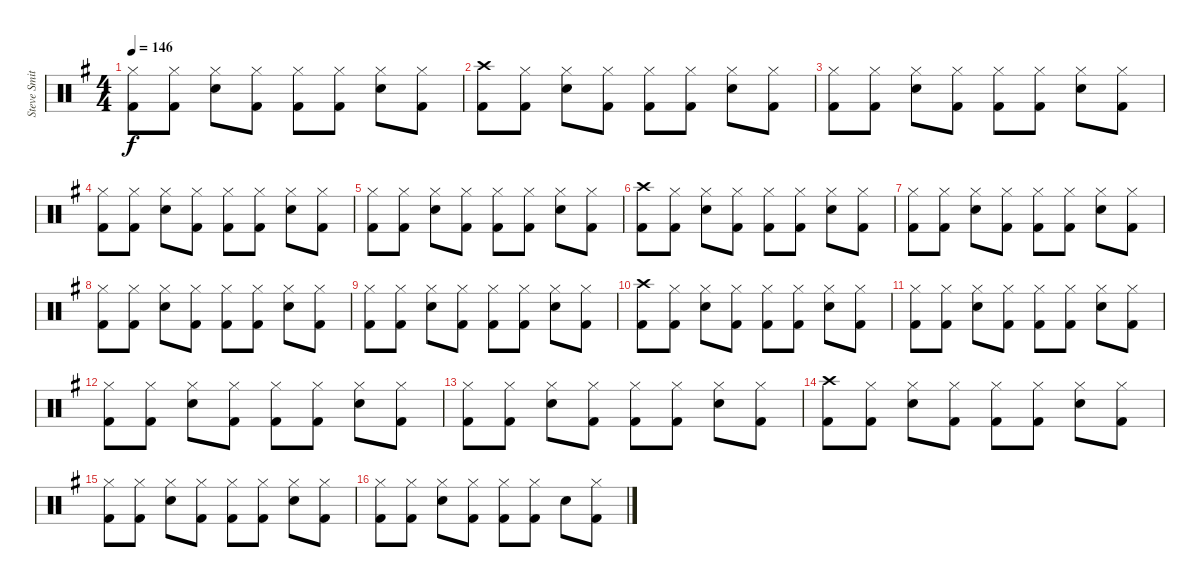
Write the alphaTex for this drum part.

\track ("Steve Smith" "Steve Smit") {instrument percussion}
\staff {score}
\articulation defaults
\ts (4 4)
\tempo 146
\clef neutral
\ks g
("Hi-Hat (closed)" "Kick (hit) 2").8{dy f} ("Hi-Hat (closed)" "Kick (hit) 2").8 ("Hi-Hat (closed)" "Snare (hit) 2").8 ("Hi-Hat (closed)" "Kick (hit) 2").8 ("Hi-Hat (closed)" "Kick (hit) 2").8 ("Hi-Hat (closed)" "Kick (hit) 2").8 ("Hi-Hat (closed)" "Snare (hit) 2").8 ("Hi-Hat (closed)" "Kick (hit) 2").8 |
("Crash high (hit)" "Kick (hit) 2").8 ("Hi-Hat (closed)" "Kick (hit) 2").8 ("Hi-Hat (closed)" "Snare (hit) 2").8 ("Hi-Hat (closed)" "Kick (hit) 2").8 ("Hi-Hat (closed)" "Kick (hit) 2").8 ("Hi-Hat (closed)" "Kick (hit) 2").8 ("Hi-Hat (closed)" "Snare (hit) 2").8 ("Hi-Hat (closed)" "Kick (hit) 2").8 |
("Hi-Hat (closed)" "Kick (hit) 2").8 ("Hi-Hat (closed)" "Kick (hit) 2").8 ("Hi-Hat (closed)" "Snare (hit) 2").8 ("Hi-Hat (closed)" "Kick (hit) 2").8 ("Hi-Hat (closed)" "Kick (hit) 2").8 ("Hi-Hat (closed)" "Kick (hit) 2").8 ("Hi-Hat (closed)" "Snare (hit) 2").8 ("Hi-Hat (closed)" "Kick (hit) 2").8 |
("Hi-Hat (closed)" "Kick (hit) 2").8 ("Hi-Hat (closed)" "Kick (hit) 2").8 ("Hi-Hat (closed)" "Snare (hit) 2").8 ("Hi-Hat (closed)" "Kick (hit) 2").8 ("Hi-Hat (closed)" "Kick (hit) 2").8 ("Hi-Hat (closed)" "Kick (hit) 2").8 ("Hi-Hat (closed)" "Snare (hit) 2").8 ("Hi-Hat (closed)" "Kick (hit) 2").8 |
("Hi-Hat (closed)" "Kick (hit) 2").8 ("Hi-Hat (closed)" "Kick (hit) 2").8 ("Hi-Hat (closed)" "Snare (hit) 2").8 ("Hi-Hat (closed)" "Kick (hit) 2").8 ("Hi-Hat (closed)" "Kick (hit) 2").8 ("Hi-Hat (closed)" "Kick (hit) 2").8 ("Hi-Hat (closed)" "Snare (hit) 2").8 ("Hi-Hat (closed)" "Kick (hit) 2").8 |
("Crash high (hit)" "Kick (hit) 2").8 ("Hi-Hat (closed)" "Kick (hit) 2").8 ("Hi-Hat (closed)" "Snare (hit) 2").8 ("Hi-Hat (closed)" "Kick (hit) 2").8 ("Hi-Hat (closed)" "Kick (hit) 2").8 ("Hi-Hat (closed)" "Kick (hit) 2").8 ("Hi-Hat (closed)" "Snare (hit) 2").8 ("Hi-Hat (closed)" "Kick (hit) 2").8 |
("Hi-Hat (closed)" "Kick (hit) 2").8 ("Hi-Hat (closed)" "Kick (hit) 2").8 ("Hi-Hat (closed)" "Snare (hit) 2").8 ("Hi-Hat (closed)" "Kick (hit) 2").8 ("Hi-Hat (closed)" "Kick (hit) 2").8 ("Hi-Hat (closed)" "Kick (hit) 2").8 ("Hi-Hat (closed)" "Snare (hit) 2").8 ("Hi-Hat (closed)" "Kick (hit) 2").8 |
("Hi-Hat (closed)" "Kick (hit) 2").8 ("Hi-Hat (closed)" "Kick (hit) 2").8 ("Hi-Hat (closed)" "Snare (hit) 2").8 ("Hi-Hat (closed)" "Kick (hit) 2").8 ("Hi-Hat (closed)" "Kick (hit) 2").8 ("Hi-Hat (closed)" "Kick (hit) 2").8 ("Hi-Hat (closed)" "Snare (hit) 2").8 ("Hi-Hat (closed)" "Kick (hit) 2").8 |
("Hi-Hat (closed)" "Kick (hit) 2").8 ("Hi-Hat (closed)" "Kick (hit) 2").8 ("Hi-Hat (closed)" "Snare (hit) 2").8 ("Hi-Hat (closed)" "Kick (hit) 2").8 ("Hi-Hat (closed)" "Kick (hit) 2").8 ("Hi-Hat (closed)" "Kick (hit) 2").8 ("Hi-Hat (closed)" "Snare (hit) 2").8 ("Hi-Hat (closed)" "Kick (hit) 2").8 |
("Crash high (hit)" "Kick (hit) 2").8 ("Hi-Hat (closed)" "Kick (hit) 2").8 ("Hi-Hat (closed)" "Snare (hit) 2").8 ("Hi-Hat (closed)" "Kick (hit) 2").8 ("Hi-Hat (closed)" "Kick (hit) 2").8 ("Hi-Hat (closed)" "Kick (hit) 2").8 ("Hi-Hat (closed)" "Snare (hit) 2").8 ("Hi-Hat (closed)" "Kick (hit) 2").8 |
("Hi-Hat (closed)" "Kick (hit) 2").8 ("Hi-Hat (closed)" "Kick (hit) 2").8 ("Hi-Hat (closed)" "Snare (hit) 2").8 ("Hi-Hat (closed)" "Kick (hit) 2").8 ("Hi-Hat (closed)" "Kick (hit) 2").8 ("Hi-Hat (closed)" "Kick (hit) 2").8 ("Hi-Hat (closed)" "Snare (hit) 2").8 ("Hi-Hat (closed)" "Kick (hit) 2").8 |
("Hi-Hat (closed)" "Kick (hit) 2").8 ("Hi-Hat (closed)" "Kick (hit) 2").8 ("Hi-Hat (closed)" "Snare (hit) 2").8 ("Hi-Hat (closed)" "Kick (hit) 2").8 ("Hi-Hat (closed)" "Kick (hit) 2").8 ("Hi-Hat (closed)" "Kick (hit) 2").8 ("Hi-Hat (closed)" "Snare (hit) 2").8 ("Hi-Hat (closed)" "Kick (hit) 2").8 |
("Hi-Hat (closed)" "Kick (hit) 2").8 ("Hi-Hat (closed)" "Kick (hit) 2").8 ("Hi-Hat (closed)" "Snare (hit) 2").8 ("Hi-Hat (closed)" "Kick (hit) 2").8 ("Hi-Hat (closed)" "Kick (hit) 2").8 ("Hi-Hat (closed)" "Kick (hit) 2").8 ("Hi-Hat (closed)" "Snare (hit) 2").8 ("Hi-Hat (closed)" "Kick (hit) 2").8 |
("Crash high (hit)" "Kick (hit) 2").8 ("Hi-Hat (closed)" "Kick (hit) 2").8 ("Hi-Hat (closed)" "Snare (hit) 2").8 ("Hi-Hat (closed)" "Kick (hit) 2").8 ("Hi-Hat (closed)" "Kick (hit) 2").8 ("Hi-Hat (closed)" "Kick (hit) 2").8 ("Hi-Hat (closed)" "Snare (hit) 2").8 ("Hi-Hat (closed)" "Kick (hit) 2").8 |
("Hi-Hat (closed)" "Kick (hit) 2").8 ("Hi-Hat (closed)" "Kick (hit) 2").8 ("Hi-Hat (closed)" "Snare (hit) 2").8 ("Hi-Hat (closed)" "Kick (hit) 2").8 ("Hi-Hat (closed)" "Kick (hit) 2").8 ("Hi-Hat (closed)" "Kick (hit) 2").8 ("Hi-Hat (closed)" "Snare (hit) 2").8 ("Hi-Hat (closed)" "Kick (hit) 2").8 |
("Hi-Hat (closed)" "Kick (hit) 2").8 ("Hi-Hat (closed)" "Kick (hit) 2").8 ("Hi-Hat (closed)" "Snare (hit) 2").8 ("Hi-Hat (closed)" "Kick (hit) 2").8 ("Hi-Hat (closed)" "Kick (hit) 2").8 ("Hi-Hat (closed)" "Kick (hit) 2").8 "Snare (hit) 2".8 ("Hi-Hat (closed)" "Kick (hit) 2").8
